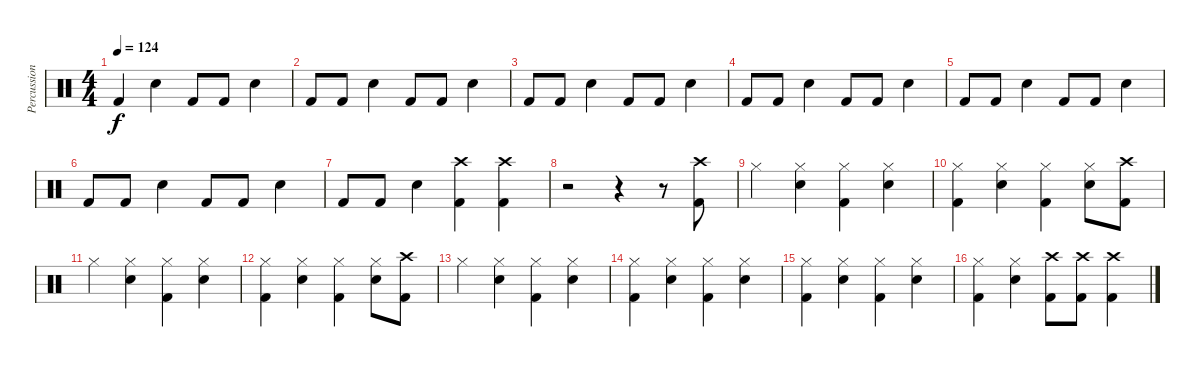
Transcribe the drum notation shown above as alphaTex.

\track ("Percussion" "Percussion") {instrument percussion}
\staff {score}
\articulation defaults
\ts (4 4)
\tempo 124
\clef neutral
\ks c "Kick (hit) 2"{t}.4{dy f} "Snare (hit) 2".4 "Kick (hit) 2".8 "Kick (hit) 2".8 "Snare (hit) 2".4
|
"Kick (hit) 2".8 "Kick (hit) 2".8 "Snare (hit) 2".4 "Kick (hit) 2".8 "Kick (hit) 2".8 "Snare (hit) 2".4 |
"Kick (hit) 2".8 "Kick (hit) 2".8 "Snare (hit) 2".4 "Kick (hit) 2".8 "Kick (hit) 2".8 "Snare (hit) 2".4 |
"Kick (hit) 2".8 "Kick (hit) 2".8 "Snare (hit) 2".4 "Kick (hit) 2".8 "Kick (hit) 2".8 "Snare (hit) 2".4 |
"Kick (hit) 2".8 "Kick (hit) 2".8 "Snare (hit) 2".4 "Kick (hit) 2".8 "Kick (hit) 2".8 "Snare (hit) 2".4 |
"Kick (hit) 2".8 "Kick (hit) 2".8 "Snare (hit) 2".4 "Kick (hit) 2".8 "Kick (hit) 2".8 "Snare (hit) 2".4 |
"Kick (hit) 2".8 "Kick (hit) 2".8 "Snare (hit) 2".4 ("Crash high (hit)" "Kick (hit) 2").4 ("Crash high (hit)" "Kick (hit) 2").4 |
r.2 r.4 r.8 ("Crash high (hit)" "Kick (hit) 2").8 |
"Hi-Hat (closed)".4 ("Hi-Hat (closed)" "Snare (hit) 2").4 ("Hi-Hat (closed)" "Kick (hit) 2").4 ("Hi-Hat (closed)" "Snare (hit) 2").4 |
("Hi-Hat (closed)" "Kick (hit) 2").4 ("Hi-Hat (closed)" "Snare (hit) 2").4 ("Hi-Hat (closed)" "Kick (hit) 2").4 ("Hi-Hat (closed)" "Snare (hit) 2").8 ("Crash high (hit)" "Kick (hit) 2").8 |
"Hi-Hat (closed)".4 ("Hi-Hat (closed)" "Snare (hit) 2").4 ("Hi-Hat (closed)" "Kick (hit) 2").4 ("Hi-Hat (closed)" "Snare (hit) 2").4 |
("Hi-Hat (closed)" "Kick (hit) 2").4 ("Hi-Hat (closed)" "Snare (hit) 2").4 ("Hi-Hat (closed)" "Kick (hit) 2").4 ("Hi-Hat (closed)" "Snare (hit) 2").8 ("Crash high (hit)" "Kick (hit) 2").8 |
"Hi-Hat (closed)".4 ("Hi-Hat (closed)" "Snare (hit) 2").4 ("Hi-Hat (closed)" "Kick (hit) 2").4 ("Hi-Hat (closed)" "Snare (hit) 2").4 |
("Hi-Hat (closed)" "Kick (hit) 2").4 ("Hi-Hat (closed)" "Snare (hit) 2").4 ("Hi-Hat (closed)" "Kick (hit) 2").4 ("Hi-Hat (closed)" "Snare (hit) 2").4 |
("Hi-Hat (closed)" "Kick (hit) 2").4 ("Hi-Hat (closed)" "Snare (hit) 2").4 ("Hi-Hat (closed)" "Kick (hit) 2").4 ("Hi-Hat (closed)" "Snare (hit) 2").4 |
("Hi-Hat (closed)" "Kick (hit) 2").4 ("Hi-Hat (closed)" "Snare (hit) 2").4 ("Crash high (hit)" "Kick (hit) 2").8 ("Crash high (hit)" "Kick (hit) 2").8 ("Crash high (hit)" "Kick (hit) 2").4
